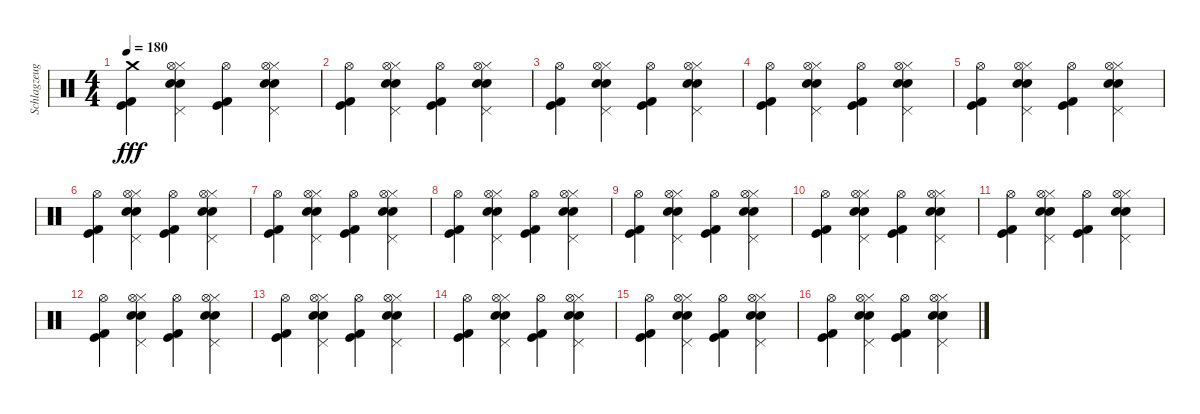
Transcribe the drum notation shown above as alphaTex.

\track ("Schlagzeug" "Schlagzeug") {instrument percussion}
\staff {score}
\articulation defaults
\ts (4 4)
\tempo 180
\clef neutral
\ks c
("Kick (hit)" "Kick (hit) 2" "Crash medium (hit)").4{dy fff} ("Electric Snare (hit)" "Hi-Hat (closed)" "Snare (hit) 2" "Pedal Hi-Hat (hit)" "Hi-Hat (open)").4 ("Kick (hit)" "Kick (hit) 2" "Hi-Hat (open)").4 ("Electric Snare (hit)" "Hi-Hat (closed)" "Snare (hit) 2" "Pedal Hi-Hat (hit)" "Hi-Hat (open)").4 |
("Kick (hit)" "Kick (hit) 2" "Hi-Hat (open)").4 ("Electric Snare (hit)" "Hi-Hat (closed)" "Snare (hit) 2" "Pedal Hi-Hat (hit)" "Hi-Hat (open)").4 ("Kick (hit)" "Kick (hit) 2" "Hi-Hat (open)").4 ("Electric Snare (hit)" "Hi-Hat (closed)" "Snare (hit) 2" "Pedal Hi-Hat (hit)" "Hi-Hat (open)").4 |
("Kick (hit)" "Kick (hit) 2" "Hi-Hat (open)").4 ("Electric Snare (hit)" "Hi-Hat (closed)" "Snare (hit) 2" "Pedal Hi-Hat (hit)" "Hi-Hat (open)").4 ("Kick (hit)" "Kick (hit) 2" "Hi-Hat (open)").4 ("Electric Snare (hit)" "Hi-Hat (closed)" "Snare (hit) 2" "Pedal Hi-Hat (hit)" "Hi-Hat (open)").4 |
("Kick (hit)" "Kick (hit) 2" "Hi-Hat (open)").4 ("Electric Snare (hit)" "Hi-Hat (closed)" "Snare (hit) 2" "Pedal Hi-Hat (hit)" "Hi-Hat (open)").4 ("Kick (hit)" "Kick (hit) 2" "Hi-Hat (open)").4 ("Electric Snare (hit)" "Hi-Hat (closed)" "Snare (hit) 2" "Pedal Hi-Hat (hit)" "Hi-Hat (open)").4 |
("Kick (hit)" "Kick (hit) 2" "Hi-Hat (open)").4 ("Electric Snare (hit)" "Hi-Hat (closed)" "Snare (hit) 2" "Pedal Hi-Hat (hit)" "Hi-Hat (open)").4 ("Kick (hit)" "Kick (hit) 2" "Hi-Hat (open)").4 ("Electric Snare (hit)" "Hi-Hat (closed)" "Snare (hit) 2" "Pedal Hi-Hat (hit)" "Hi-Hat (open)").4 |
("Kick (hit)" "Kick (hit) 2" "Hi-Hat (open)").4 ("Electric Snare (hit)" "Hi-Hat (closed)" "Snare (hit) 2" "Pedal Hi-Hat (hit)" "Hi-Hat (open)").4 ("Kick (hit)" "Kick (hit) 2" "Hi-Hat (open)").4 ("Electric Snare (hit)" "Hi-Hat (closed)" "Snare (hit) 2" "Pedal Hi-Hat (hit)" "Hi-Hat (open)").4 |
("Kick (hit)" "Kick (hit) 2" "Hi-Hat (open)").4 ("Electric Snare (hit)" "Hi-Hat (closed)" "Snare (hit) 2" "Pedal Hi-Hat (hit)" "Hi-Hat (open)").4 ("Kick (hit)" "Kick (hit) 2" "Hi-Hat (open)").4 ("Electric Snare (hit)" "Hi-Hat (closed)" "Snare (hit) 2" "Pedal Hi-Hat (hit)" "Hi-Hat (open)").4 |
("Kick (hit)" "Kick (hit) 2" "Hi-Hat (open)").4 ("Electric Snare (hit)" "Hi-Hat (closed)" "Snare (hit) 2" "Pedal Hi-Hat (hit)" "Hi-Hat (open)").4 ("Kick (hit)" "Kick (hit) 2" "Hi-Hat (open)").4 ("Electric Snare (hit)" "Hi-Hat (closed)" "Snare (hit) 2" "Pedal Hi-Hat (hit)" "Hi-Hat (open)").4 |
("Kick (hit)" "Kick (hit) 2" "Hi-Hat (open)").4 ("Electric Snare (hit)" "Hi-Hat (closed)" "Snare (hit) 2" "Pedal Hi-Hat (hit)" "Hi-Hat (open)").4 ("Kick (hit)" "Kick (hit) 2" "Hi-Hat (open)").4 ("Electric Snare (hit)" "Hi-Hat (closed)" "Snare (hit) 2" "Pedal Hi-Hat (hit)" "Hi-Hat (open)").4 |
("Kick (hit)" "Kick (hit) 2" "Hi-Hat (open)").4 ("Electric Snare (hit)" "Hi-Hat (closed)" "Snare (hit) 2" "Pedal Hi-Hat (hit)" "Hi-Hat (open)").4 ("Kick (hit)" "Kick (hit) 2" "Hi-Hat (open)").4 ("Electric Snare (hit)" "Hi-Hat (closed)" "Snare (hit) 2" "Pedal Hi-Hat (hit)" "Hi-Hat (open)").4 |
("Kick (hit)" "Kick (hit) 2" "Hi-Hat (open)").4 ("Electric Snare (hit)" "Hi-Hat (closed)" "Snare (hit) 2" "Pedal Hi-Hat (hit)" "Hi-Hat (open)").4 ("Kick (hit)" "Kick (hit) 2" "Hi-Hat (open)").4 ("Electric Snare (hit)" "Hi-Hat (closed)" "Snare (hit) 2" "Pedal Hi-Hat (hit)" "Hi-Hat (open)").4 |
("Kick (hit)" "Kick (hit) 2" "Hi-Hat (open)").4 ("Electric Snare (hit)" "Hi-Hat (closed)" "Snare (hit) 2" "Pedal Hi-Hat (hit)" "Hi-Hat (open)").4 ("Kick (hit)" "Kick (hit) 2" "Hi-Hat (open)").4 ("Electric Snare (hit)" "Hi-Hat (closed)" "Snare (hit) 2" "Pedal Hi-Hat (hit)" "Hi-Hat (open)").4 |
("Kick (hit)" "Kick (hit) 2" "Hi-Hat (open)").4 ("Electric Snare (hit)" "Hi-Hat (closed)" "Snare (hit) 2" "Pedal Hi-Hat (hit)" "Hi-Hat (open)").4 ("Kick (hit)" "Kick (hit) 2" "Hi-Hat (open)").4 ("Electric Snare (hit)" "Hi-Hat (closed)" "Snare (hit) 2" "Pedal Hi-Hat (hit)" "Hi-Hat (open)").4 |
("Kick (hit)" "Kick (hit) 2" "Hi-Hat (open)").4 ("Electric Snare (hit)" "Hi-Hat (closed)" "Snare (hit) 2" "Pedal Hi-Hat (hit)" "Hi-Hat (open)").4 ("Kick (hit)" "Kick (hit) 2" "Hi-Hat (open)").4 ("Electric Snare (hit)" "Hi-Hat (closed)" "Snare (hit) 2" "Pedal Hi-Hat (hit)" "Hi-Hat (open)").4 |
("Kick (hit)" "Kick (hit) 2" "Hi-Hat (open)").4 ("Electric Snare (hit)" "Hi-Hat (closed)" "Snare (hit) 2" "Pedal Hi-Hat (hit)" "Hi-Hat (open)").4 ("Kick (hit)" "Kick (hit) 2" "Hi-Hat (open)").4 ("Electric Snare (hit)" "Hi-Hat (closed)" "Snare (hit) 2" "Pedal Hi-Hat (hit)" "Hi-Hat (open)").4 |
("Kick (hit)" "Kick (hit) 2" "Hi-Hat (open)").4 ("Electric Snare (hit)" "Hi-Hat (closed)" "Snare (hit) 2" "Pedal Hi-Hat (hit)" "Hi-Hat (open)").4 ("Kick (hit)" "Kick (hit) 2" "Hi-Hat (open)").4 ("Electric Snare (hit)" "Hi-Hat (closed)" "Snare (hit) 2" "Pedal Hi-Hat (hit)" "Hi-Hat (open)").4
